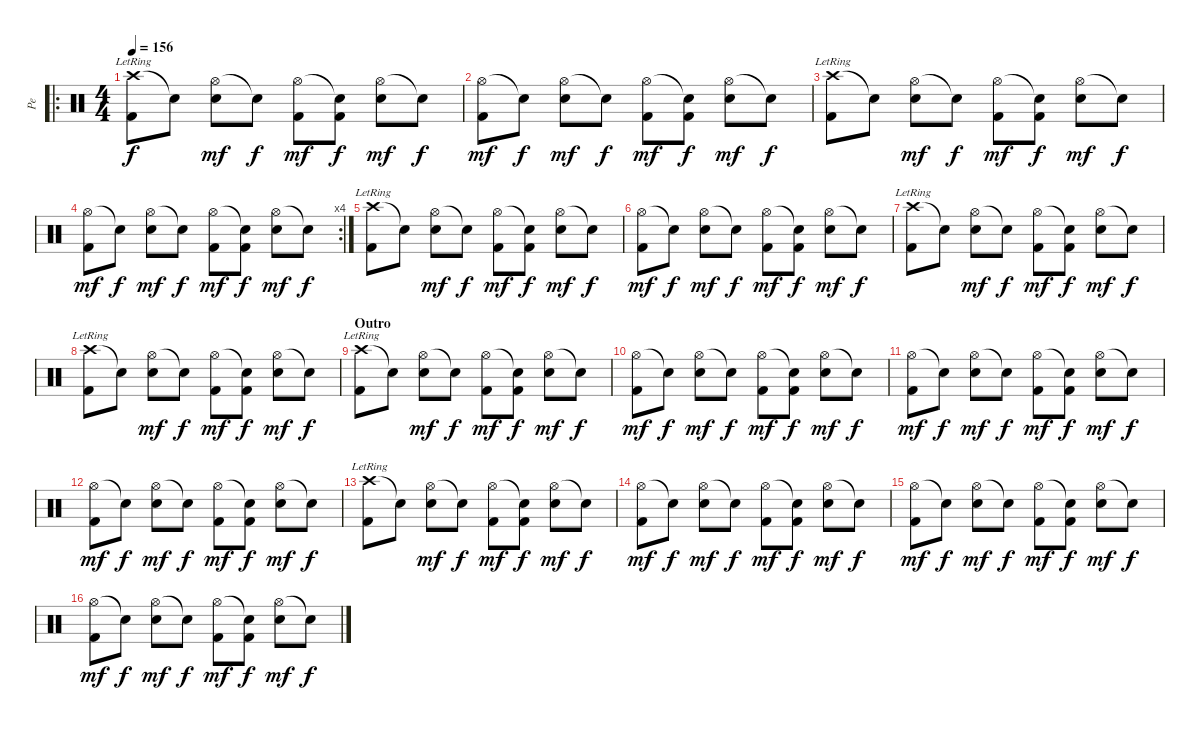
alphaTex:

\track ("Pe" "Pe") {instrument percussion}
\staff {score}
\articulation defaults
\ro
\ts (4 4)
\tempo 156
\clef neutral
\ks c
("Crash high (hit)"{lr} "Kick (hit) 2").8{dy f} "Snare (hit)"{t}.8 ("Hi-Hat (open)" "Electric Snare (hit)").8{dy mf} "Snare (hit)"{t}.8{dy f} ("Hi-Hat (open)" "Kick (hit) 2").8{dy mf} ("Snare (hit)"{t} "Kick (hit) 2").8{dy f} ("Hi-Hat (open)" "Electric Snare (hit)").8{dy mf} "Snare (hit)"{t}.8{dy f} |
("Hi-Hat (open)" "Kick (hit) 2").8{dy mf} "Snare (hit)"{t}.8{dy f} ("Hi-Hat (open)" "Electric Snare (hit)").8{dy mf} "Snare (hit)"{t}.8{dy f} ("Hi-Hat (open)" "Kick (hit) 2").8{dy mf} ("Snare (hit)"{t} "Kick (hit) 2").8{dy f} ("Hi-Hat (open)" "Electric Snare (hit)").8{dy mf} "Snare (hit)"{t}.8{dy f} |
("Crash high (hit)"{lr} "Kick (hit) 2").8 "Snare (hit)"{t}.8 ("Hi-Hat (open)" "Electric Snare (hit)").8{dy mf} "Snare (hit)"{t}.8{dy f} ("Hi-Hat (open)" "Kick (hit) 2").8{dy mf} ("Snare (hit)"{t} "Kick (hit) 2").8{dy f} ("Hi-Hat (open)" "Electric Snare (hit)").8{dy mf} "Snare (hit)"{t}.8{dy f} |
\rc 4
("Hi-Hat (open)" "Kick (hit) 2").8{dy mf} "Snare (hit)"{t}.8{dy f} ("Hi-Hat (open)" "Electric Snare (hit)").8{dy mf} "Snare (hit)"{t}.8{dy f} ("Hi-Hat (open)" "Kick (hit) 2").8{dy mf} ("Snare (hit)"{t} "Kick (hit) 2").8{dy f} ("Hi-Hat (open)" "Electric Snare (hit)").8{dy mf} "Snare (hit)"{t}.8{dy f} |
("Crash high (hit)"{lr} "Kick (hit) 2").8 "Snare (hit)"{t}.8 ("Hi-Hat (open)" "Electric Snare (hit)").8{dy mf} "Snare (hit)"{t}.8{dy f} ("Hi-Hat (open)" "Kick (hit) 2").8{dy mf} ("Snare (hit)"{t} "Kick (hit) 2").8{dy f} ("Hi-Hat (open)" "Electric Snare (hit)").8{dy mf} "Snare (hit)"{t}.8{dy f} |
("Hi-Hat (open)" "Kick (hit) 2").8{dy mf} "Snare (hit)"{t}.8{dy f} ("Hi-Hat (open)" "Electric Snare (hit)").8{dy mf} "Snare (hit)"{t}.8{dy f} ("Hi-Hat (open)" "Kick (hit) 2").8{dy mf} ("Snare (hit)"{t} "Kick (hit) 2").8{dy f} ("Hi-Hat (open)" "Electric Snare (hit)").8{dy mf} "Snare (hit)"{t}.8{dy f} |
("Crash high (hit)"{lr} "Kick (hit) 2").8 "Snare (hit)"{t}.8 ("Hi-Hat (open)" "Electric Snare (hit)").8{dy mf} "Snare (hit)"{t}.8{dy f} ("Hi-Hat (open)" "Kick (hit) 2").8{dy mf} ("Snare (hit)"{t} "Kick (hit) 2").8{dy f} ("Hi-Hat (open)" "Electric Snare (hit)").8{dy mf} "Snare (hit)"{t}.8{dy f} |
("Crash high (hit)"{lr} "Kick (hit) 2").8 "Snare (hit)"{t}.8 ("Hi-Hat (open)" "Electric Snare (hit)").8{dy mf} "Snare (hit)"{t}.8{dy f} ("Hi-Hat (open)" "Kick (hit) 2").8{dy mf} ("Snare (hit)"{t} "Kick (hit) 2").8{dy f} ("Hi-Hat (open)" "Electric Snare (hit)").8{dy mf} "Snare (hit)"{t}.8{dy f} |
\section ("" "Outro")
("Crash high (hit)"{lr} "Kick (hit) 2").8 "Snare (hit)"{t}.8 ("Hi-Hat (open)" "Electric Snare (hit)").8{dy mf} "Snare (hit)"{t}.8{dy f} ("Hi-Hat (open)" "Kick (hit) 2").8{dy mf} ("Snare (hit)"{t} "Kick (hit) 2").8{dy f} ("Hi-Hat (open)" "Electric Snare (hit)").8{dy mf} "Snare (hit)"{t}.8{dy f} |
("Hi-Hat (open)" "Kick (hit) 2").8{dy mf} "Snare (hit)"{t}.8{dy f} ("Hi-Hat (open)" "Electric Snare (hit)").8{dy mf} "Snare (hit)"{t}.8{dy f} ("Hi-Hat (open)" "Kick (hit) 2").8{dy mf} ("Snare (hit)"{t} "Kick (hit) 2").8{dy f} ("Hi-Hat (open)" "Electric Snare (hit)").8{dy mf} "Snare (hit)"{t}.8{dy f} |
("Hi-Hat (open)" "Kick (hit) 2").8{dy mf} "Snare (hit)"{t}.8{dy f} ("Hi-Hat (open)" "Electric Snare (hit)").8{dy mf} "Snare (hit)"{t}.8{dy f} ("Hi-Hat (open)" "Kick (hit) 2").8{dy mf} ("Snare (hit)"{t} "Kick (hit) 2").8{dy f} ("Hi-Hat (open)" "Electric Snare (hit)").8{dy mf} "Snare (hit)"{t}.8{dy f} |
("Hi-Hat (open)" "Kick (hit) 2").8{dy mf} "Snare (hit)"{t}.8{dy f} ("Hi-Hat (open)" "Electric Snare (hit)").8{dy mf} "Snare (hit)"{t}.8{dy f} ("Hi-Hat (open)" "Kick (hit) 2").8{dy mf} ("Snare (hit)"{t} "Kick (hit) 2").8{dy f} ("Hi-Hat (open)" "Electric Snare (hit)").8{dy mf} "Snare (hit)"{t}.8{dy f} |
("Crash high (hit)"{lr} "Kick (hit) 2").8 "Snare (hit)"{t}.8 ("Hi-Hat (open)" "Electric Snare (hit)").8{dy mf} "Snare (hit)"{t}.8{dy f} ("Hi-Hat (open)" "Kick (hit) 2").8{dy mf} ("Snare (hit)"{t} "Kick (hit) 2").8{dy f} ("Hi-Hat (open)" "Electric Snare (hit)").8{dy mf} "Snare (hit)"{t}.8{dy f} |
("Hi-Hat (open)" "Kick (hit) 2").8{dy mf} "Snare (hit)"{t}.8{dy f} ("Hi-Hat (open)" "Electric Snare (hit)").8{dy mf} "Snare (hit)"{t}.8{dy f} ("Hi-Hat (open)" "Kick (hit) 2").8{dy mf} ("Snare (hit)"{t} "Kick (hit) 2").8{dy f} ("Hi-Hat (open)" "Electric Snare (hit)").8{dy mf} "Snare (hit)"{t}.8{dy f} |
("Hi-Hat (open)" "Kick (hit) 2").8{dy mf} "Snare (hit)"{t}.8{dy f} ("Hi-Hat (open)" "Electric Snare (hit)").8{dy mf} "Snare (hit)"{t}.8{dy f} ("Hi-Hat (open)" "Kick (hit) 2").8{dy mf} ("Snare (hit)"{t} "Kick (hit) 2").8{dy f} ("Hi-Hat (open)" "Electric Snare (hit)").8{dy mf} "Snare (hit)"{t}.8{dy f} |
("Hi-Hat (open)" "Kick (hit) 2").8{dy mf} "Snare (hit)"{t}.8{dy f} ("Hi-Hat (open)" "Electric Snare (hit)").8{dy mf} "Snare (hit)"{t}.8{dy f} ("Hi-Hat (open)" "Kick (hit) 2").8{dy mf} ("Snare (hit)"{t} "Kick (hit) 2").8{dy f} ("Hi-Hat (open)" "Electric Snare (hit)").8{dy mf} "Snare (hit)"{t}.8{dy f}
